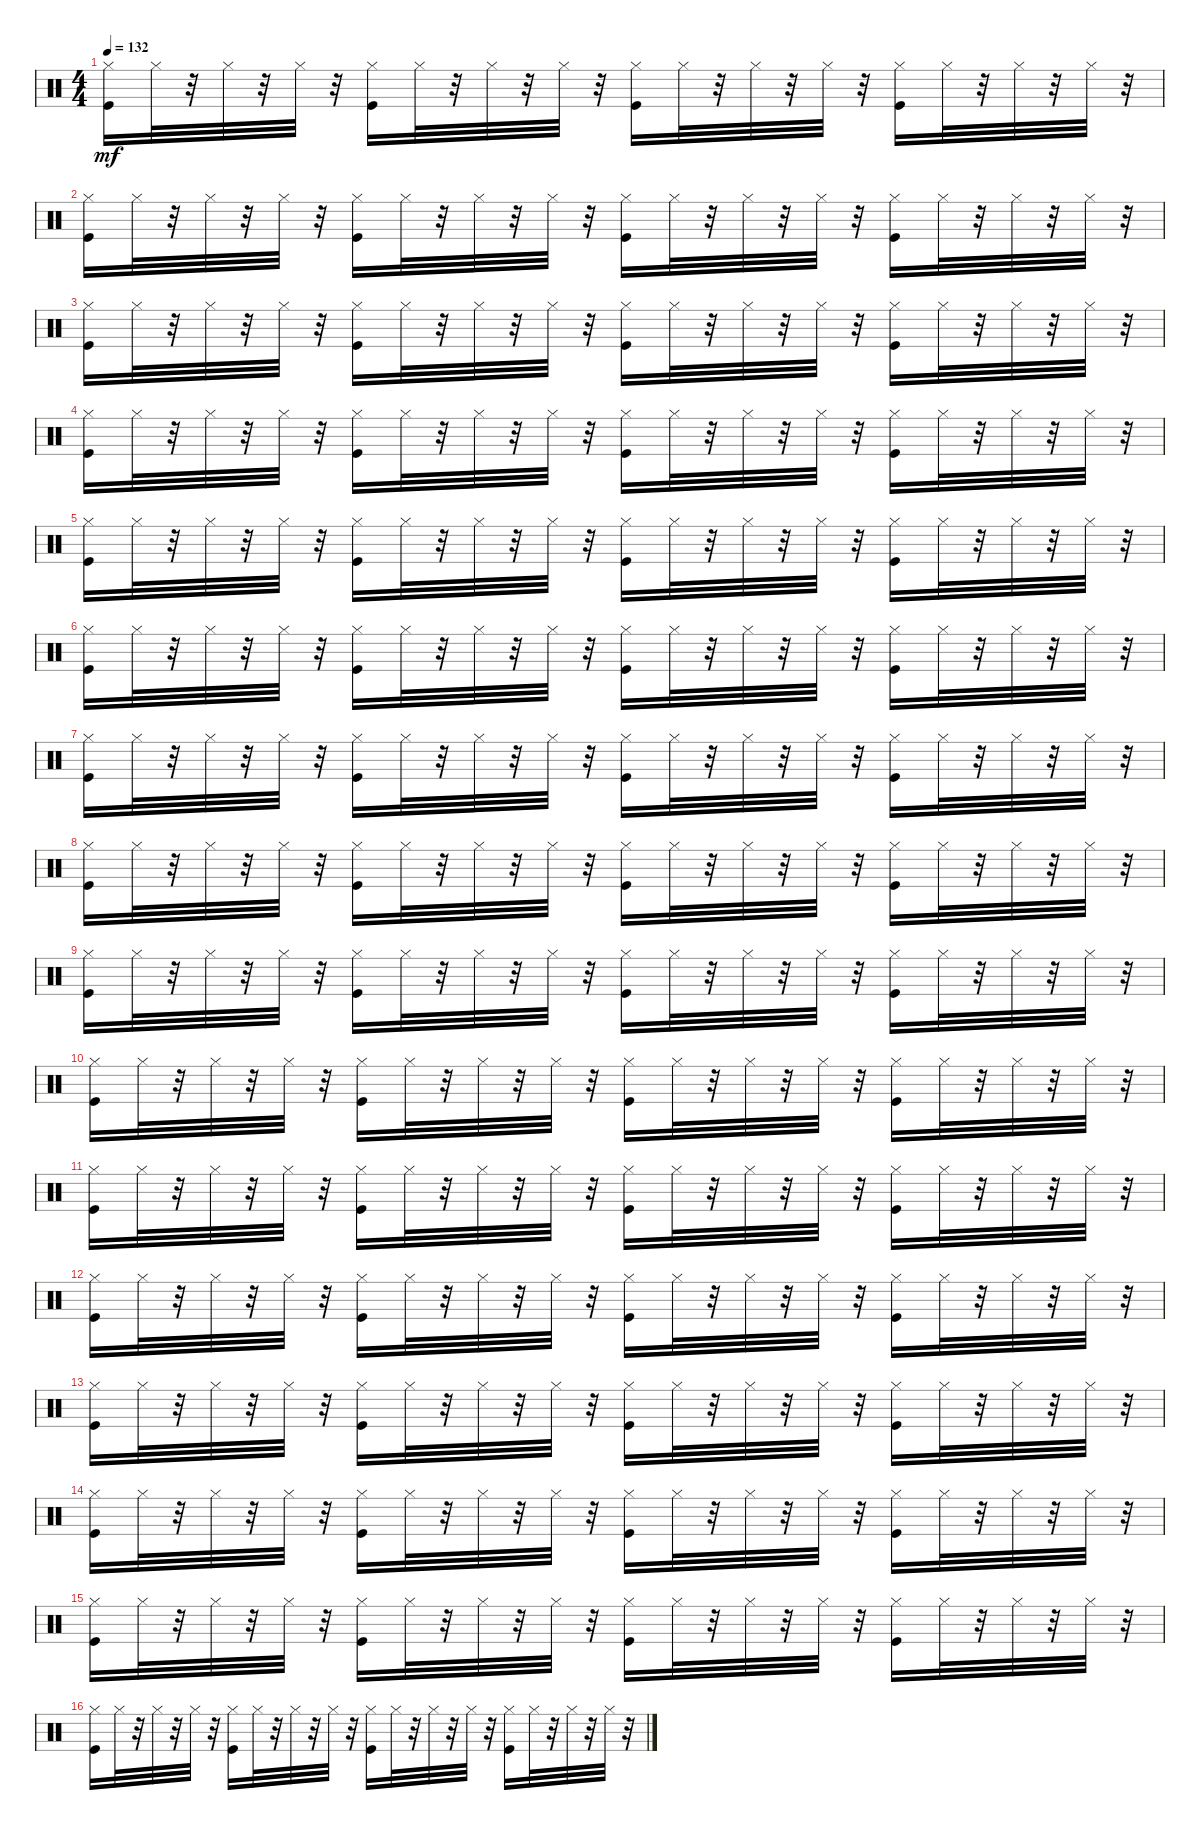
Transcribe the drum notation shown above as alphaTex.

\track "" {instrument percussion}
\staff {score}
\articulation defaults
\ts (4 4)
\tempo 132
\clef neutral
\ks c
("Hi-Hat (closed)" "Kick (hit)").16{dy mf} "Hi-Hat (closed)".32 r.32 "Hi-Hat (closed)".32 r.32 "Hi-Hat (closed)".32 r.32 ("Hi-Hat (closed)" "Kick (hit)").16 "Hi-Hat (closed)".32 r.32 "Hi-Hat (closed)".32 r.32 "Hi-Hat (closed)".32 r.32 ("Hi-Hat (closed)" "Kick (hit)").16 "Hi-Hat (closed)".32 r.32 "Hi-Hat (closed)".32 r.32 "Hi-Hat (closed)".32 r.32 ("Hi-Hat (closed)" "Kick (hit)").16 "Hi-Hat (closed)".32 r.32 "Hi-Hat (closed)".32 r.32 "Hi-Hat (closed)".32 r.32 |
("Hi-Hat (closed)" "Kick (hit)").16 "Hi-Hat (closed)".32 r.32 "Hi-Hat (closed)".32 r.32 "Hi-Hat (closed)".32 r.32 ("Hi-Hat (closed)" "Kick (hit)").16 "Hi-Hat (closed)".32 r.32 "Hi-Hat (closed)".32 r.32 "Hi-Hat (closed)".32 r.32 ("Hi-Hat (closed)" "Kick (hit)").16 "Hi-Hat (closed)".32 r.32 "Hi-Hat (closed)".32 r.32 "Hi-Hat (closed)".32 r.32 ("Hi-Hat (closed)" "Kick (hit)").16 "Hi-Hat (closed)".32 r.32 "Hi-Hat (closed)".32 r.32 "Hi-Hat (closed)".32 r.32 |
("Hi-Hat (closed)" "Kick (hit)").16 "Hi-Hat (closed)".32 r.32 "Hi-Hat (closed)".32 r.32 "Hi-Hat (closed)".32 r.32 ("Hi-Hat (closed)" "Kick (hit)").16 "Hi-Hat (closed)".32 r.32 "Hi-Hat (closed)".32 r.32 "Hi-Hat (closed)".32 r.32 ("Hi-Hat (closed)" "Kick (hit)").16 "Hi-Hat (closed)".32 r.32 "Hi-Hat (closed)".32 r.32 "Hi-Hat (closed)".32 r.32 ("Hi-Hat (closed)" "Kick (hit)").16 "Hi-Hat (closed)".32 r.32 "Hi-Hat (closed)".32 r.32 "Hi-Hat (closed)".32 r.32 |
("Hi-Hat (closed)" "Kick (hit)").16 "Hi-Hat (closed)".32 r.32 "Hi-Hat (closed)".32 r.32 "Hi-Hat (closed)".32 r.32 ("Hi-Hat (closed)" "Kick (hit)").16 "Hi-Hat (closed)".32 r.32 "Hi-Hat (closed)".32 r.32 "Hi-Hat (closed)".32 r.32 ("Hi-Hat (closed)" "Kick (hit)").16 "Hi-Hat (closed)".32 r.32 "Hi-Hat (closed)".32 r.32 "Hi-Hat (closed)".32 r.32 ("Hi-Hat (closed)" "Kick (hit)").16 "Hi-Hat (closed)".32 r.32 "Hi-Hat (closed)".32 r.32 "Hi-Hat (closed)".32 r.32 |
("Hi-Hat (closed)" "Kick (hit)").16 "Hi-Hat (closed)".32 r.32 "Hi-Hat (closed)".32 r.32 "Hi-Hat (closed)".32 r.32 ("Hi-Hat (closed)" "Kick (hit)").16 "Hi-Hat (closed)".32 r.32 "Hi-Hat (closed)".32 r.32 "Hi-Hat (closed)".32 r.32 ("Hi-Hat (closed)" "Kick (hit)").16 "Hi-Hat (closed)".32 r.32 "Hi-Hat (closed)".32 r.32 "Hi-Hat (closed)".32 r.32 ("Hi-Hat (closed)" "Kick (hit)").16 "Hi-Hat (closed)".32 r.32 "Hi-Hat (closed)".32 r.32 "Hi-Hat (closed)".32 r.32 |
("Hi-Hat (closed)" "Kick (hit)").16 "Hi-Hat (closed)".32 r.32 "Hi-Hat (closed)".32 r.32 "Hi-Hat (closed)".32 r.32 ("Hi-Hat (closed)" "Kick (hit)").16 "Hi-Hat (closed)".32 r.32 "Hi-Hat (closed)".32 r.32 "Hi-Hat (closed)".32 r.32 ("Hi-Hat (closed)" "Kick (hit)").16 "Hi-Hat (closed)".32 r.32 "Hi-Hat (closed)".32 r.32 "Hi-Hat (closed)".32 r.32 ("Hi-Hat (closed)" "Kick (hit)").16 "Hi-Hat (closed)".32 r.32 "Hi-Hat (closed)".32 r.32 "Hi-Hat (closed)".32 r.32 |
("Hi-Hat (closed)" "Kick (hit)").16 "Hi-Hat (closed)".32 r.32 "Hi-Hat (closed)".32 r.32 "Hi-Hat (closed)".32 r.32 ("Hi-Hat (closed)" "Kick (hit)").16 "Hi-Hat (closed)".32 r.32 "Hi-Hat (closed)".32 r.32 "Hi-Hat (closed)".32 r.32 ("Hi-Hat (closed)" "Kick (hit)").16 "Hi-Hat (closed)".32 r.32 "Hi-Hat (closed)".32 r.32 "Hi-Hat (closed)".32 r.32 ("Hi-Hat (closed)" "Kick (hit)").16 "Hi-Hat (closed)".32 r.32 "Hi-Hat (closed)".32 r.32 "Hi-Hat (closed)".32 r.32 |
("Hi-Hat (closed)" "Kick (hit)").16 "Hi-Hat (closed)".32 r.32 "Hi-Hat (closed)".32 r.32 "Hi-Hat (closed)".32 r.32 ("Hi-Hat (closed)" "Kick (hit)").16 "Hi-Hat (closed)".32 r.32 "Hi-Hat (closed)".32 r.32 "Hi-Hat (closed)".32 r.32 ("Hi-Hat (closed)" "Kick (hit)").16 "Hi-Hat (closed)".32 r.32 "Hi-Hat (closed)".32 r.32 "Hi-Hat (closed)".32 r.32 ("Hi-Hat (closed)" "Kick (hit)").16 "Hi-Hat (closed)".32 r.32 "Hi-Hat (closed)".32 r.32 "Hi-Hat (closed)".32 r.32 |
("Hi-Hat (closed)" "Kick (hit)").16 "Hi-Hat (closed)".32 r.32 "Hi-Hat (closed)".32 r.32 "Hi-Hat (closed)".32 r.32 ("Hi-Hat (closed)" "Kick (hit)").16 "Hi-Hat (closed)".32 r.32 "Hi-Hat (closed)".32 r.32 "Hi-Hat (closed)".32 r.32 ("Hi-Hat (closed)" "Kick (hit)").16 "Hi-Hat (closed)".32 r.32 "Hi-Hat (closed)".32 r.32 "Hi-Hat (closed)".32 r.32 ("Hi-Hat (closed)" "Kick (hit)").16 "Hi-Hat (closed)".32 r.32 "Hi-Hat (closed)".32 r.32 "Hi-Hat (closed)".32 r.32 |
("Hi-Hat (closed)" "Kick (hit)").16 "Hi-Hat (closed)".32 r.32 "Hi-Hat (closed)".32 r.32 "Hi-Hat (closed)".32 r.32 ("Hi-Hat (closed)" "Kick (hit)").16 "Hi-Hat (closed)".32 r.32 "Hi-Hat (closed)".32 r.32 "Hi-Hat (closed)".32 r.32 ("Hi-Hat (closed)" "Kick (hit)").16 "Hi-Hat (closed)".32 r.32 "Hi-Hat (closed)".32 r.32 "Hi-Hat (closed)".32 r.32 ("Hi-Hat (closed)" "Kick (hit)").16 "Hi-Hat (closed)".32 r.32 "Hi-Hat (closed)".32 r.32 "Hi-Hat (closed)".32 r.32 |
("Hi-Hat (closed)" "Kick (hit)").16 "Hi-Hat (closed)".32 r.32 "Hi-Hat (closed)".32 r.32 "Hi-Hat (closed)".32 r.32 ("Hi-Hat (closed)" "Kick (hit)").16 "Hi-Hat (closed)".32 r.32 "Hi-Hat (closed)".32 r.32 "Hi-Hat (closed)".32 r.32 ("Hi-Hat (closed)" "Kick (hit)").16 "Hi-Hat (closed)".32 r.32 "Hi-Hat (closed)".32 r.32 "Hi-Hat (closed)".32 r.32 ("Hi-Hat (closed)" "Kick (hit)").16 "Hi-Hat (closed)".32 r.32 "Hi-Hat (closed)".32 r.32 "Hi-Hat (closed)".32 r.32 |
("Hi-Hat (closed)" "Kick (hit)").16 "Hi-Hat (closed)".32 r.32 "Hi-Hat (closed)".32 r.32 "Hi-Hat (closed)".32 r.32 ("Hi-Hat (closed)" "Kick (hit)").16 "Hi-Hat (closed)".32 r.32 "Hi-Hat (closed)".32 r.32 "Hi-Hat (closed)".32 r.32 ("Hi-Hat (closed)" "Kick (hit)").16 "Hi-Hat (closed)".32 r.32 "Hi-Hat (closed)".32 r.32 "Hi-Hat (closed)".32 r.32 ("Hi-Hat (closed)" "Kick (hit)").16 "Hi-Hat (closed)".32 r.32 "Hi-Hat (closed)".32 r.32 "Hi-Hat (closed)".32 r.32 |
("Hi-Hat (closed)" "Kick (hit)").16 "Hi-Hat (closed)".32 r.32 "Hi-Hat (closed)".32 r.32 "Hi-Hat (closed)".32 r.32 ("Hi-Hat (closed)" "Kick (hit)").16 "Hi-Hat (closed)".32 r.32 "Hi-Hat (closed)".32 r.32 "Hi-Hat (closed)".32 r.32 ("Hi-Hat (closed)" "Kick (hit)").16 "Hi-Hat (closed)".32 r.32 "Hi-Hat (closed)".32 r.32 "Hi-Hat (closed)".32 r.32 ("Hi-Hat (closed)" "Kick (hit)").16 "Hi-Hat (closed)".32 r.32 "Hi-Hat (closed)".32 r.32 "Hi-Hat (closed)".32 r.32 |
("Hi-Hat (closed)" "Kick (hit)").16 "Hi-Hat (closed)".32 r.32 "Hi-Hat (closed)".32 r.32 "Hi-Hat (closed)".32 r.32 ("Hi-Hat (closed)" "Kick (hit)").16 "Hi-Hat (closed)".32 r.32 "Hi-Hat (closed)".32 r.32 "Hi-Hat (closed)".32 r.32 ("Hi-Hat (closed)" "Kick (hit)").16 "Hi-Hat (closed)".32 r.32 "Hi-Hat (closed)".32 r.32 "Hi-Hat (closed)".32 r.32 ("Hi-Hat (closed)" "Kick (hit)").16 "Hi-Hat (closed)".32 r.32 "Hi-Hat (closed)".32 r.32 "Hi-Hat (closed)".32 r.32 |
("Hi-Hat (closed)" "Kick (hit)").16 "Hi-Hat (closed)".32 r.32 "Hi-Hat (closed)".32 r.32 "Hi-Hat (closed)".32 r.32 ("Hi-Hat (closed)" "Kick (hit)").16 "Hi-Hat (closed)".32 r.32 "Hi-Hat (closed)".32 r.32 "Hi-Hat (closed)".32 r.32 ("Hi-Hat (closed)" "Kick (hit)").16 "Hi-Hat (closed)".32 r.32 "Hi-Hat (closed)".32 r.32 "Hi-Hat (closed)".32 r.32 ("Hi-Hat (closed)" "Kick (hit)").16 "Hi-Hat (closed)".32 r.32 "Hi-Hat (closed)".32 r.32 "Hi-Hat (closed)".32 r.32 |
("Hi-Hat (closed)" "Kick (hit)").16 "Hi-Hat (closed)".32 r.32 "Hi-Hat (closed)".32 r.32 "Hi-Hat (closed)".32 r.32 ("Hi-Hat (closed)" "Kick (hit)").16 "Hi-Hat (closed)".32 r.32 "Hi-Hat (closed)".32 r.32 "Hi-Hat (closed)".32 r.32 ("Hi-Hat (closed)" "Kick (hit)").16 "Hi-Hat (closed)".32 r.32 "Hi-Hat (closed)".32 r.32 "Hi-Hat (closed)".32 r.32 ("Hi-Hat (closed)" "Kick (hit)").16 "Hi-Hat (closed)".32 r.32 "Hi-Hat (closed)".32 r.32 "Hi-Hat (closed)".32 r.32
